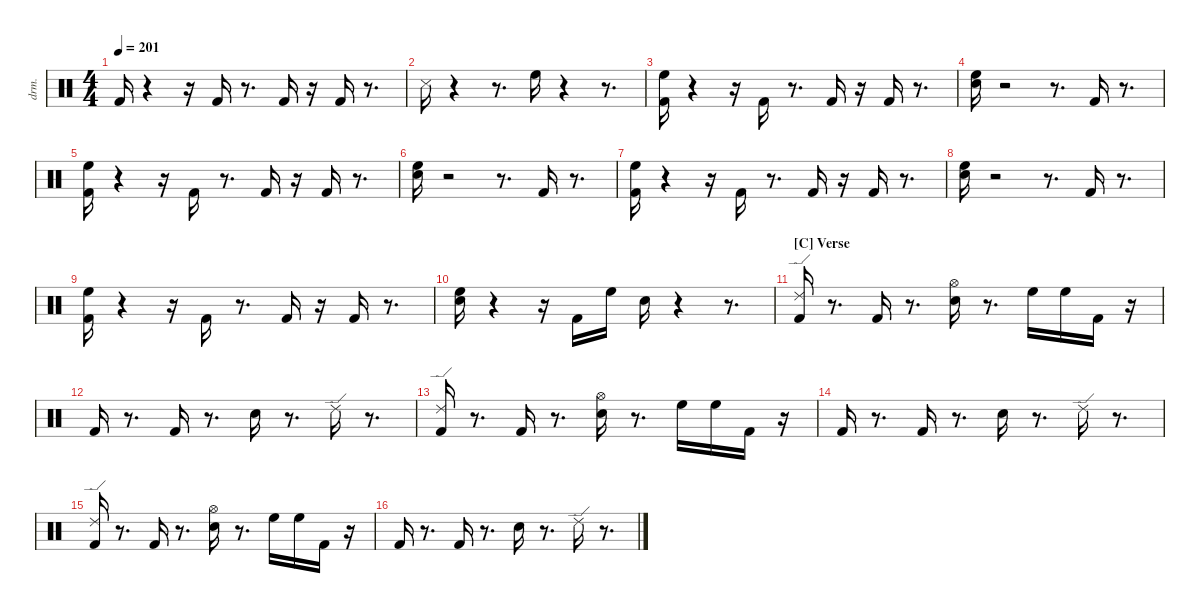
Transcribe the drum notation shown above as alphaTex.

\defaultSystemsLayout 4
\hideDynamics
\bracketExtendMode nobrackets
\otherSystemsTrackNameOrientation horizontal
\track ("Drums" "drm.") {instrument percussion}
\staff {score}
\articulation defaults
\ts (4 4)
\tempo 201
\clef neutral
\ks aminor "Kick (hit) 2".16{dy ff beam Up}
r.4{beam Up} r.16{beam Up} "Kick (hit) 2".16{beam Up} r.8{d beam Up} "Kick (hit) 2".16{beam Up} r.16{beam Up} "Kick (hit) 2".16{beam Up} r.8{d beam Up} |
"Snare (side stick) 3"{acc #}.16{dy fff beam Down} r.4{beam Down} r.8{d beam Down} "High Floor Tom (hit)".16{dy ff beam Down} r.4{beam Down} r.8{d beam Down} |
("Kick (hit) 2" "High Floor Tom (hit)").16{beam Down} r.4{beam Down} r.16{beam Down} "Kick (hit) 2".16{beam Up} r.8{d beam Up} "Kick (hit) 2".16{beam Up} r.16{beam Up} "Kick (hit) 2".16{beam Up} r.8{d beam Up} |
("Snare (hit) 2" "High Floor Tom (hit)").16{beam Down} r.2{beam Down} r.8{d beam Down} "Kick (hit) 2".16{dy f beam Up} r.8{d beam Up} |
("Kick (hit) 2" "High Floor Tom (hit)").16{dy ff beam Down} r.4{beam Down} r.16{beam Down} "Kick (hit) 2".16{beam Up} r.8{d beam Up} "Kick (hit) 2".16{beam Up} r.16{beam Up} "Kick (hit) 2".16{beam Up} r.8{d beam Up} |
("Snare (hit) 2" "High Floor Tom (hit)").16{beam Down} r.2{beam Down} r.8{d beam Down} "Kick (hit) 2".16{dy f beam Up} r.8{d beam Up} |
("Kick (hit) 2" "High Floor Tom (hit)").16{dy ff beam Down} r.4{beam Down} r.16{beam Down} "Kick (hit) 2".16{beam Up} r.8{d beam Up} "Kick (hit) 2".16{beam Up} r.16{beam Up} "Kick (hit) 2".16{beam Up} r.8{d beam Up} |
("Snare (hit) 2" "High Floor Tom (hit)").16{beam Down} r.2{beam Down} r.8{d beam Down} "Kick (hit) 2".16{dy f beam Up} r.8{d beam Up} |
("Kick (hit) 2" "High Floor Tom (hit)").16{dy ff beam Down} r.4{beam Down} r.16{beam Down} "Kick (hit) 2".16{beam Up} r.8{d beam Up} "Kick (hit) 2".16{beam Up} r.16{beam Up} "Kick (hit) 2".16{beam Up} r.8{d beam Up} |
("Snare (hit) 2" "High Floor Tom (hit)").16{beam Down} r.4{beam Down} r.16{beam Down} "Kick (hit) 2".16{beam Down} "High Floor Tom (hit)".16{beam Down} "Snare (hit) 2".16{beam Down} r.4{beam Down} r.8{d beam Down} |
\section ("C" "Verse")
("Kick (hit) 2" "Ride (edge) 2").16{beam Up} r.8{d beam Up} "Kick (hit) 2".16{dy p beam Up} r.8{d beam Up} ("Snare (hit) 2" "Hi-Hat (open)"{acc #}).16{dy ff beam Down} r.8{d beam Down} "High Floor Tom (hit)".16{dy f beam Down} "High Floor Tom (hit)".16{dy p beam Down} "Kick (hit) 2".16{dy mf beam Down} r.16{beam Down} |
"Kick (hit) 2".16{dy fff beam Up} r.8{d beam Up} "Kick (hit) 2".16{dy ff beam Up} r.8{d beam Up} "Snare (hit) 2".16{beam Down} r.8{d beam Down} "Ride (edge) 2".16{dy mf beam Down} r.8{d beam Down} |
("Kick (hit) 2" "Ride (edge) 2").16{dy ff beam Up} r.8{d beam Up} "Kick (hit) 2".16{dy p beam Up} r.8{d beam Up} ("Snare (hit) 2" "Hi-Hat (open)"{acc #}).16{dy ff beam Down} r.8{d beam Down} "High Floor Tom (hit)".16{dy f beam Down} "High Floor Tom (hit)".16{dy p beam Down} "Kick (hit) 2".16{dy mf beam Down} r.16{beam Down} |
"Kick (hit) 2".16{dy fff beam Up} r.8{d beam Up} "Kick (hit) 2".16{dy ff beam Up} r.8{d beam Up} "Snare (hit) 2".16{beam Down} r.8{d beam Down} "Ride (edge) 2".16{dy mf beam Down} r.8{d beam Down} |
("Kick (hit) 2" "Ride (edge) 2").16{dy ff beam Up} r.8{d beam Up} "Kick (hit) 2".16{dy p beam Up} r.8{d beam Up} ("Snare (hit) 2" "Hi-Hat (open)"{acc #}).16{dy ff beam Down} r.8{d beam Down} "High Floor Tom (hit)".16{dy f beam Down} "High Floor Tom (hit)".16{dy p beam Down} "Kick (hit) 2".16{dy mf beam Down} r.16{beam Down} |
"Kick (hit) 2".16{dy fff beam Up} r.8{d beam Up} "Kick (hit) 2".16{dy ff beam Up} r.8{d beam Up} "Snare (hit) 2".16{beam Down} r.8{d beam Down} "Ride (edge) 2".16{dy mf beam Down} r.8{d beam Down}
